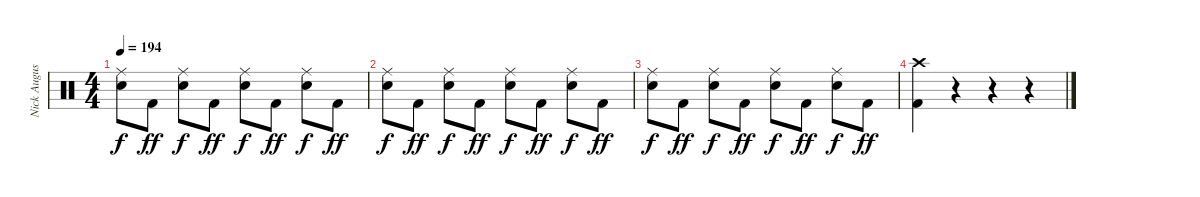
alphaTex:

\track ("Nick Augusto" "Nick Augus") {instrument percussion}
\staff {score}
\articulation defaults
\ts (4 4)
\tempo 194
\clef neutral
\ks c
("Ride (middle)" "Electric Snare (hit)").8{dy f} "Kick (hit) 2".8{dy ff} ("Ride (middle)" "Electric Snare (hit)").8{dy f} "Kick (hit) 2".8{dy ff} ("Ride (middle)" "Electric Snare (hit)").8{dy f} "Kick (hit) 2".8{dy ff} ("Ride (middle)" "Electric Snare (hit)").8{dy f} "Kick (hit) 2".8{dy ff} |
("Ride (middle)" "Electric Snare (hit)").8{dy f} "Kick (hit) 2".8{dy ff} ("Ride (middle)" "Electric Snare (hit)").8{dy f} "Kick (hit) 2".8{dy ff} ("Ride (middle)" "Electric Snare (hit)").8{dy f} "Kick (hit) 2".8{dy ff} ("Ride (middle)" "Electric Snare (hit)").8{dy f} "Kick (hit) 2".8{dy ff} |
("Ride (middle)" "Electric Snare (hit)").8{dy f} "Kick (hit) 2".8{dy ff} ("Ride (middle)" "Electric Snare (hit)").8{dy f} "Kick (hit) 2".8{dy ff} ("Ride (middle)" "Electric Snare (hit)").8{dy f} "Kick (hit) 2".8{dy ff} ("Ride (middle)" "Electric Snare (hit)").8{dy f} "Kick (hit) 2".8{dy ff} |
("Crash high (hit)" "Kick (hit) 2").4 r.4 r.4 r.4
